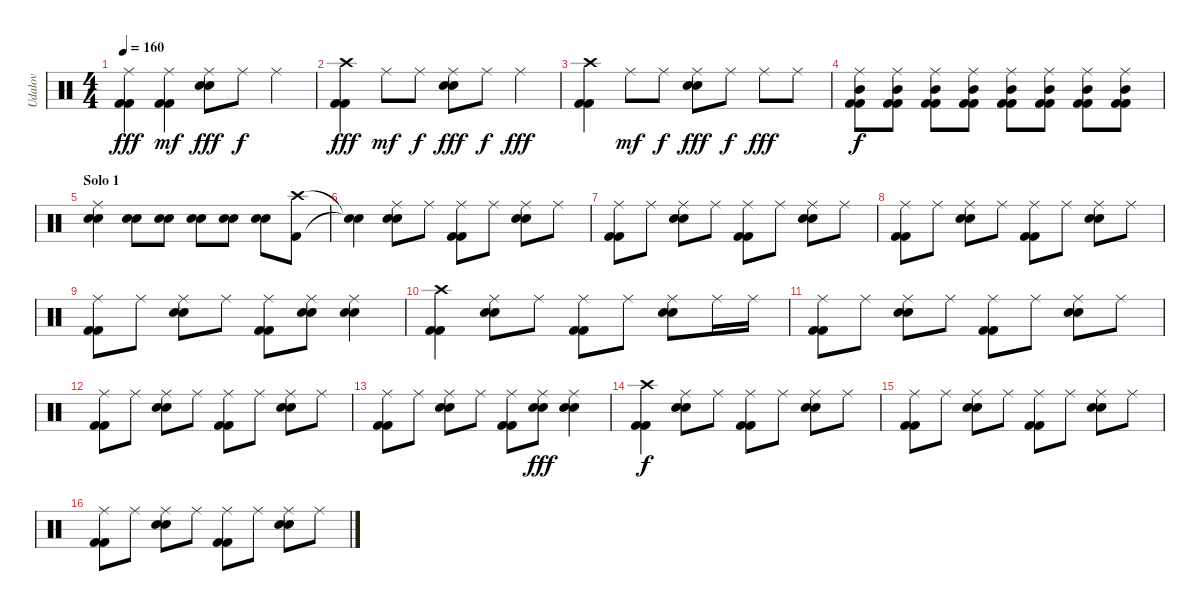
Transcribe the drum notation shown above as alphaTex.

\track ("Udalov" "Udalov") {instrument percussion}
\staff {score}
\articulation defaults
\ts (4 4)
\tempo 160
\clef neutral
\ks c
("Ride (middle)" "Kick (hit) 2" "Kick (hit) 2").4{dy fff} ("Ride (middle)" "Kick (hit) 2" "Kick (hit) 2").4{dy mf} ("Ride (middle)" "Electric Snare (hit)" "Electric Snare (hit)").8{dy fff} "Ride (middle)".8{dy f} "Ride (middle)".4 |
("Crash high (hit)" "Kick (hit) 2" "Kick (hit) 2").4{dy fff} "Ride (middle)".8{dy mf} "Ride (middle)".8{dy f} ("Ride (middle)" "Electric Snare (hit)" "Electric Snare (hit)").8{dy fff} "Ride (middle)".8{dy f} "Ride (middle)".4{dy fff} |
("Crash high (hit)" "Kick (hit) 2" "Kick (hit) 2").4 "Ride (middle)".8{dy mf} "Ride (middle)".8{dy f} ("Ride (middle)" "Electric Snare (hit)" "Electric Snare (hit)").8{dy fff} "Ride (middle)".8{dy f} "Ride (middle)".8{dy fff} "Ride (middle)".8 |
("Ride (middle)" "Mid Tom (hit)" "Kick (hit) 2" "Kick (hit) 2").8{dy f} ("Ride (middle)" "Mid Tom (hit)" "Kick (hit) 2" "Kick (hit) 2").8 ("Ride (middle)" "Mid Tom (hit)" "Kick (hit) 2" "Kick (hit) 2").8 ("Ride (middle)" "Mid Tom (hit)" "Kick (hit) 2" "Kick (hit) 2").8 ("Ride (middle)" "Mid Tom (hit)" "Kick (hit) 2" "Kick (hit) 2").8 ("Ride (middle)" "Mid Tom (hit)" "Kick (hit) 2" "Kick (hit) 2").8 ("Ride (middle)" "Mid Tom (hit)" "Kick (hit) 2" "Kick (hit) 2").8 ("Ride (middle)" "Mid Tom (hit)" "Kick (hit) 2" "Kick (hit) 2").8 |
\section ("" "Solo 1")
("Ride (middle)" "Electric Snare (hit)" "Electric Snare (hit)").4 ("Electric Snare (hit)" "Electric Snare (hit)").8 ("Electric Snare (hit)" "Electric Snare (hit)").8 ("Electric Snare (hit)" "Electric Snare (hit)").8 ("Electric Snare (hit)" "Electric Snare (hit)").8 ("Electric Snare (hit)" "Electric Snare (hit)").8 ("Crash high (hit)" "Kick (hit) 2").8 |
("Snare (hit)"{t} "Snare (hit)"{t}).4 ("Ride (middle)" "Electric Snare (hit)" "Electric Snare (hit)").8 "Ride (middle)".8 ("Ride (middle)" "Kick (hit) 2" "Kick (hit) 2").8 "Ride (middle)".8 ("Ride (middle)" "Electric Snare (hit)" "Electric Snare (hit)").8 "Ride (middle)".8 |
("Ride (middle)" "Kick (hit) 2" "Kick (hit) 2").8 "Ride (middle)".8 ("Ride (middle)" "Electric Snare (hit)" "Electric Snare (hit)").8 "Ride (middle)".8 ("Ride (middle)" "Kick (hit) 2" "Kick (hit) 2").8 "Ride (middle)".8 ("Ride (middle)" "Electric Snare (hit)" "Electric Snare (hit)").8 "Ride (middle)".8 |
("Ride (middle)" "Kick (hit) 2" "Kick (hit) 2").8 "Ride (middle)".8 ("Ride (middle)" "Electric Snare (hit)" "Electric Snare (hit)").8 "Ride (middle)".8 ("Ride (middle)" "Kick (hit) 2" "Kick (hit) 2").8 "Ride (middle)".8 ("Ride (middle)" "Electric Snare (hit)" "Electric Snare (hit)").8 "Ride (middle)".8 |
("Ride (middle)" "Kick (hit) 2" "Kick (hit) 2").8 "Ride (middle)".8 ("Ride (middle)" "Electric Snare (hit)" "Electric Snare (hit)").8 "Ride (middle)".8 ("Ride (middle)" "Kick (hit) 2" "Kick (hit) 2").8 ("Ride (middle)" "Electric Snare (hit)" "Electric Snare (hit)").8 ("Ride (middle)" "Electric Snare (hit)" "Electric Snare (hit)").4 |
("Crash high (hit)" "Kick (hit) 2" "Kick (hit) 2").4 ("Ride (middle)" "Electric Snare (hit)" "Electric Snare (hit)").8 "Ride (middle)".8 ("Ride (middle)" "Kick (hit) 2" "Kick (hit) 2").8 "Ride (middle)".8 ("Ride (middle)" "Electric Snare (hit)" "Electric Snare (hit)").8 "Ride (middle)".16 "Ride (middle)".16 |
("Ride (middle)" "Kick (hit) 2" "Kick (hit) 2").8 "Ride (middle)".8 ("Ride (middle)" "Electric Snare (hit)" "Electric Snare (hit)").8 "Ride (middle)".8 ("Ride (middle)" "Kick (hit) 2" "Kick (hit) 2").8 "Ride (middle)".8 ("Ride (middle)" "Electric Snare (hit)" "Electric Snare (hit)").8 "Ride (middle)".8 |
("Ride (middle)" "Kick (hit) 2" "Kick (hit) 2").8 "Ride (middle)".8 ("Ride (middle)" "Electric Snare (hit)" "Electric Snare (hit)").8 "Ride (middle)".8 ("Ride (middle)" "Kick (hit) 2" "Kick (hit) 2").8 "Ride (middle)".8 ("Ride (middle)" "Electric Snare (hit)" "Electric Snare (hit)").8 "Ride (middle)".8 |
("Ride (middle)" "Kick (hit) 2" "Kick (hit) 2").8 "Ride (middle)".8 ("Ride (middle)" "Electric Snare (hit)" "Electric Snare (hit)").8 "Ride (middle)".8 ("Ride (middle)" "Kick (hit) 2" "Kick (hit) 2").8 ("Ride (middle)" "Electric Snare (hit)" "Electric Snare (hit)").8{dy fff} ("Ride (middle)" "Electric Snare (hit)" "Electric Snare (hit)").4 |
("Crash high (hit)" "Kick (hit) 2" "Kick (hit) 2").4{dy f} ("Ride (middle)" "Electric Snare (hit)" "Electric Snare (hit)").8 "Ride (middle)".8 ("Ride (middle)" "Kick (hit) 2" "Kick (hit) 2").8 "Ride (middle)".8 ("Ride (middle)" "Electric Snare (hit)" "Electric Snare (hit)").8 "Ride (middle)".8 |
("Ride (middle)" "Kick (hit) 2" "Kick (hit) 2").8 "Ride (middle)".8 ("Ride (middle)" "Electric Snare (hit)" "Electric Snare (hit)").8 "Ride (middle)".8 ("Ride (middle)" "Kick (hit) 2" "Kick (hit) 2").8 "Ride (middle)".8 ("Ride (middle)" "Electric Snare (hit)" "Electric Snare (hit)").8 "Ride (middle)".8 |
("Ride (middle)" "Kick (hit) 2" "Kick (hit) 2").8 "Ride (middle)".8 ("Ride (middle)" "Electric Snare (hit)" "Electric Snare (hit)").8 "Ride (middle)".8 ("Ride (middle)" "Kick (hit) 2" "Kick (hit) 2").8 "Ride (middle)".8 ("Ride (middle)" "Electric Snare (hit)" "Electric Snare (hit)").8 "Ride (middle)".8
